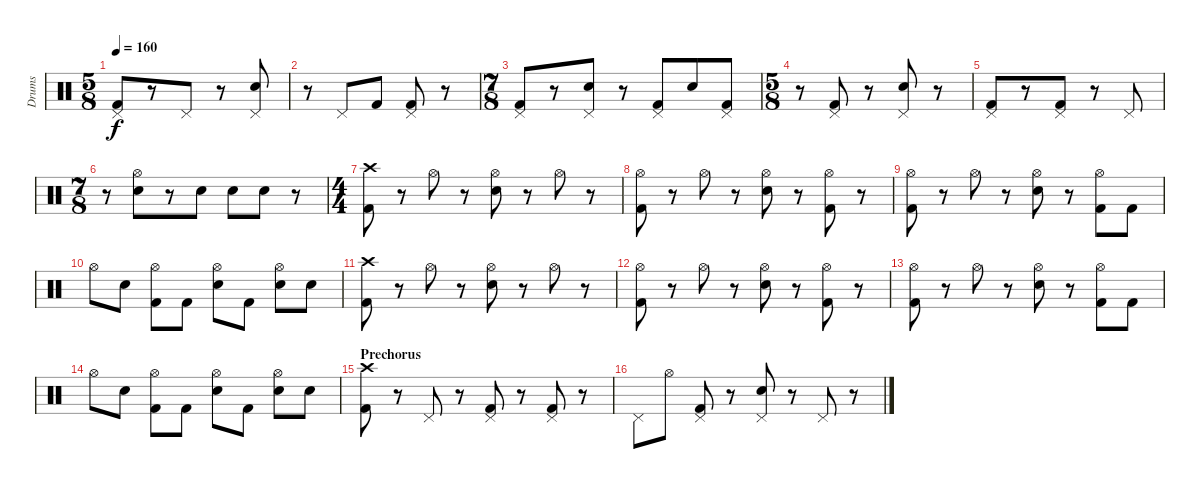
\track ("Drums" "Drums") {instrument percussion}
\staff {score}
\articulation defaults
\ts (5 8)
\tempo 160
\clef neutral
\ks c
("Pedal Hi-Hat (hit)" "Kick (hit) 2").8{dy f} r.8 "Pedal Hi-Hat (hit)".8 r.8 ("Pedal Hi-Hat (hit)" "Electric Snare (hit)").8 |
r.8 "Pedal Hi-Hat (hit)".8 "Kick (hit) 2".8 ("Pedal Hi-Hat (hit)" "Kick (hit) 2").8 r.8 |
\ts (7 8)
("Pedal Hi-Hat (hit)" "Kick (hit) 2").8 r.8 ("Pedal Hi-Hat (hit)" "Electric Snare (hit)").8 r.8 ("Pedal Hi-Hat (hit)" "Kick (hit) 2").8 "Electric Snare (hit)".8 ("Pedal Hi-Hat (hit)" "Kick (hit) 2").8 |
\ts (5 8)
r.8 ("Pedal Hi-Hat (hit)" "Kick (hit) 2").8 r.8 ("Pedal Hi-Hat (hit)" "Electric Snare (hit)").8 r.8 |
("Pedal Hi-Hat (hit)" "Kick (hit) 2").8 r.8 ("Pedal Hi-Hat (hit)" "Kick (hit) 2").8 r.8 "Pedal Hi-Hat (hit)".8 |
\ts (7 8)
r.8 ("Hi-Hat (open)" "Electric Snare (hit)").8 r.8 "Electric Snare (hit)".8 "Electric Snare (hit)".8 "Electric Snare (hit)".8 r.8 |
\ts (4 4)
("Crash high (hit)" "Kick (hit) 2").8 r.8 "Hi-Hat (open)".8 r.8 ("Hi-Hat (open)" "Electric Snare (hit)").8 r.8 "Hi-Hat (open)".8 r.8 |
("Hi-Hat (open)" "Kick (hit) 2").8 r.8 "Hi-Hat (open)".8 r.8 ("Hi-Hat (open)" "Electric Snare (hit)").8 r.8 ("Hi-Hat (open)" "Kick (hit) 2").8 r.8 |
("Hi-Hat (open)" "Kick (hit) 2").8 r.8 "Hi-Hat (open)".8 r.8 ("Hi-Hat (open)" "Electric Snare (hit)").8 r.8 ("Hi-Hat (open)" "Kick (hit) 2").8 "Kick (hit) 2".8 |
"Hi-Hat (open)".8 "Electric Snare (hit)".8 ("Hi-Hat (open)" "Kick (hit) 2").8 "Kick (hit) 2".8 ("Hi-Hat (open)" "Electric Snare (hit)").8 "Kick (hit) 2".8 ("Hi-Hat (open)" "Electric Snare (hit)").8 "Electric Snare (hit)".8 |
("Crash high (hit)" "Kick (hit) 2").8 r.8 "Hi-Hat (open)".8 r.8 ("Hi-Hat (open)" "Electric Snare (hit)").8 r.8 "Hi-Hat (open)".8 r.8 |
("Hi-Hat (open)" "Kick (hit) 2").8 r.8 "Hi-Hat (open)".8 r.8 ("Hi-Hat (open)" "Electric Snare (hit)").8 r.8 ("Hi-Hat (open)" "Kick (hit) 2").8 r.8 |
("Hi-Hat (open)" "Kick (hit) 2").8 r.8 "Hi-Hat (open)".8 r.8 ("Hi-Hat (open)" "Electric Snare (hit)").8 r.8 ("Hi-Hat (open)" "Kick (hit) 2").8 "Kick (hit) 2".8 |
"Hi-Hat (open)".8 "Electric Snare (hit)".8 ("Hi-Hat (open)" "Kick (hit) 2").8 "Kick (hit) 2".8 ("Hi-Hat (open)" "Electric Snare (hit)").8 "Kick (hit) 2".8 ("Hi-Hat (open)" "Electric Snare (hit)").8 "Electric Snare (hit)".8 |
\section ("" "Prechorus")
("Crash high (hit)" "Kick (hit) 2").8 r.8 "Pedal Hi-Hat (hit)".8 r.8 ("Pedal Hi-Hat (hit)" "Kick (hit) 2").8 r.8 ("Pedal Hi-Hat (hit)" "Kick (hit) 2").8 r.8 |
"Pedal Hi-Hat (hit)".8 "Hi-Hat (open)".8 ("Pedal Hi-Hat (hit)" "Kick (hit) 2").8 r.8 ("Pedal Hi-Hat (hit)" "Electric Snare (hit)").8 r.8 "Pedal Hi-Hat (hit)".8 r.8
